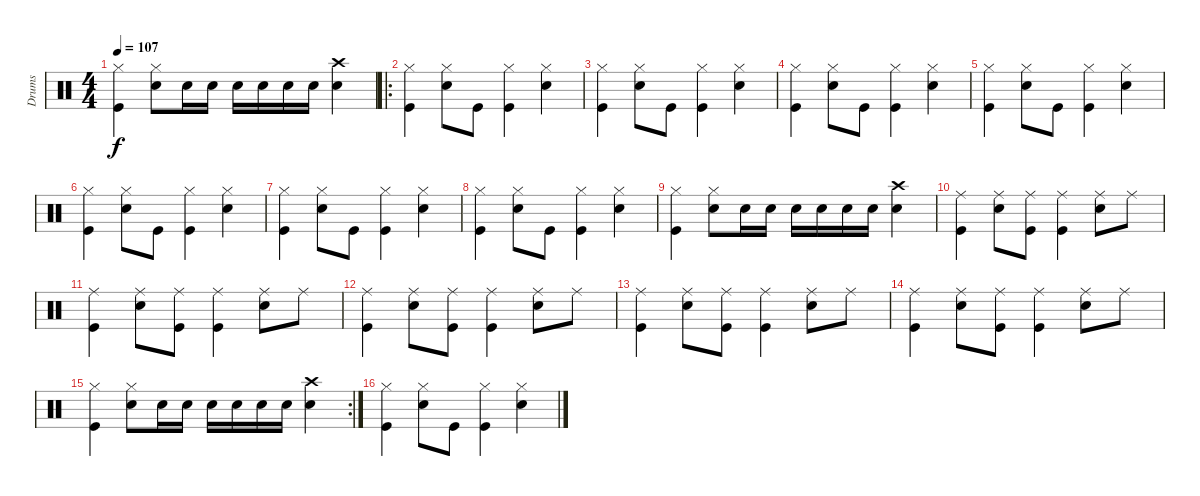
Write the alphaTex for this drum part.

\track ("Drums" "Drums") {instrument percussion}
\staff {score}
\articulation defaults
\ts (4 4)
\tempo 107
\clef neutral
\ks c
("Kick (hit)" "Hi-Hat (closed)").4{dy f} ("Snare (hit) 2" "Hi-Hat (closed)").8 "Snare (hit) 2".16 "Snare (hit) 2".16 "Snare (hit) 2".16 "Snare (hit) 2".16 "Snare (hit) 2".16 "Snare (hit) 2".16 ("Crash high (hit)" "Snare (hit) 2").4 |
\ro
("Kick (hit)" "Hi-Hat (closed)").4 ("Snare (hit) 2" "Hi-Hat (closed)").8 "Kick (hit)".8 ("Kick (hit)" "Hi-Hat (closed)").4 ("Snare (hit) 2" "Hi-Hat (closed)").4 |
("Kick (hit)" "Hi-Hat (closed)").4 ("Snare (hit) 2" "Hi-Hat (closed)").8 "Kick (hit)".8 ("Kick (hit)" "Hi-Hat (closed)").4 ("Snare (hit) 2" "Hi-Hat (closed)").4 |
("Kick (hit)" "Hi-Hat (closed)").4 ("Snare (hit) 2" "Hi-Hat (closed)").8 "Kick (hit)".8 ("Kick (hit)" "Hi-Hat (closed)").4 ("Snare (hit) 2" "Hi-Hat (closed)").4 |
("Kick (hit)" "Hi-Hat (closed)").4 ("Snare (hit) 2" "Hi-Hat (closed)").8 "Kick (hit)".8 ("Kick (hit)" "Hi-Hat (closed)").4 ("Snare (hit) 2" "Hi-Hat (closed)").4 |
("Kick (hit)" "Hi-Hat (closed)").4 ("Snare (hit) 2" "Hi-Hat (closed)").8 "Kick (hit)".8 ("Kick (hit)" "Hi-Hat (closed)").4 ("Snare (hit) 2" "Hi-Hat (closed)").4 |
("Kick (hit)" "Hi-Hat (closed)").4 ("Snare (hit) 2" "Hi-Hat (closed)").8 "Kick (hit)".8 ("Kick (hit)" "Hi-Hat (closed)").4 ("Snare (hit) 2" "Hi-Hat (closed)").4 |
("Kick (hit)" "Hi-Hat (closed)").4 ("Snare (hit) 2" "Hi-Hat (closed)").8 "Kick (hit)".8 ("Kick (hit)" "Hi-Hat (closed)").4 ("Snare (hit) 2" "Hi-Hat (closed)").4 |
("Kick (hit)" "Hi-Hat (closed)").4 ("Snare (hit) 2" "Hi-Hat (closed)").8 "Snare (hit) 2".16 "Snare (hit) 2".16 "Snare (hit) 2".16 "Snare (hit) 2".16 "Snare (hit) 2".16 "Snare (hit) 2".16 ("Crash high (hit)" "Snare (hit) 2").4 |
("Kick (hit)" "Ride (middle)").4 ("Snare (hit) 2" "Ride (middle)").8 ("Kick (hit)" "Ride (middle)").8 ("Kick (hit)" "Ride (middle)").4 ("Snare (hit) 2" "Ride (middle)").8 "Ride (middle)".8 |
("Kick (hit)" "Ride (middle)").4 ("Snare (hit) 2" "Ride (middle)").8 ("Kick (hit)" "Ride (middle)").8 ("Kick (hit)" "Ride (middle)").4 ("Snare (hit) 2" "Ride (middle)").8 "Ride (middle)".8 |
("Kick (hit)" "Ride (middle)").4 ("Snare (hit) 2" "Ride (middle)").8 ("Kick (hit)" "Ride (middle)").8 ("Kick (hit)" "Ride (middle)").4 ("Snare (hit) 2" "Ride (middle)").8 "Ride (middle)".8 |
("Kick (hit)" "Ride (middle)").4 ("Snare (hit) 2" "Ride (middle)").8 ("Kick (hit)" "Ride (middle)").8 ("Kick (hit)" "Ride (middle)").4 ("Snare (hit) 2" "Ride (middle)").8 "Ride (middle)".8 |
("Kick (hit)" "Ride (middle)").4 ("Snare (hit) 2" "Ride (middle)").8 ("Kick (hit)" "Ride (middle)").8 ("Kick (hit)" "Ride (middle)").4 ("Snare (hit) 2" "Ride (middle)").8 "Ride (middle)".8 |
\rc 2
("Kick (hit)" "Hi-Hat (closed)").4 ("Snare (hit) 2" "Hi-Hat (closed)").8 "Snare (hit) 2".16 "Snare (hit) 2".16 "Snare (hit) 2".16 "Snare (hit) 2".16 "Snare (hit) 2".16 "Snare (hit) 2".16 ("Crash high (hit)" "Snare (hit) 2").4 |
("Kick (hit)" "Hi-Hat (closed)").4 ("Snare (hit) 2" "Hi-Hat (closed)").8 "Kick (hit)".8 ("Kick (hit)" "Hi-Hat (closed)").4 ("Snare (hit) 2" "Hi-Hat (closed)").4
